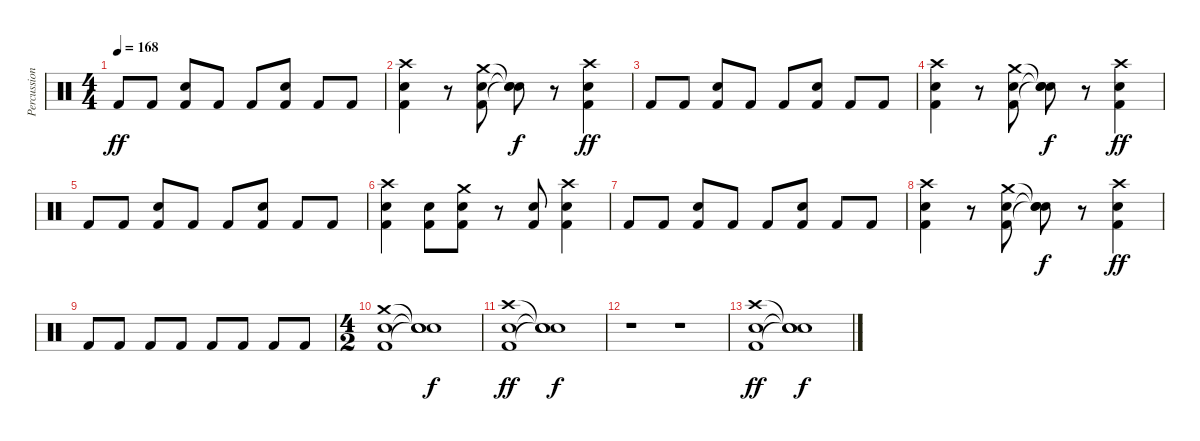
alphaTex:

\track ("Percussions" "Percussion") {instrument percussion}
\staff {score}
\articulation defaults
\ts (4 4)
\tempo 168
\clef neutral
\ks c "Kick (hit) 2".8{dy ff} "Kick (hit) 2".8
("Kick (hit) 2" "Snare (hit) 2").8 "Kick (hit) 2".8 "Kick (hit) 2".8 ("Kick (hit) 2" "Snare (hit) 2").8 "Kick (hit) 2".8 "Kick (hit) 2".8 |
("Kick (hit) 2" "Snare (hit) 2" "Crash high (hit)").4 r.8 ("Kick (hit) 2" "Snare (hit) 2" "Crash medium (hit)").8 ("Snare (hit)"{t} "Snare (hit)"{t} "Snare (hit)"{t}).8{dy f} r.8 ("Kick (hit) 2" "Snare (hit) 2" "Crash high (hit)").4{dy ff} |
"Kick (hit) 2".8 "Kick (hit) 2".8 ("Kick (hit) 2" "Snare (hit) 2").8 "Kick (hit) 2".8 "Kick (hit) 2".8 ("Kick (hit) 2" "Snare (hit) 2").8 "Kick (hit) 2".8 "Kick (hit) 2".8 |
("Kick (hit) 2" "Snare (hit) 2" "Crash high (hit)").4 r.8 ("Kick (hit) 2" "Snare (hit) 2" "Crash medium (hit)").8 ("Snare (hit)"{t} "Snare (hit)"{t} "Snare (hit)"{t}).8{dy f} r.8 ("Kick (hit) 2" "Snare (hit) 2" "Crash high (hit)").4{dy ff} |
"Kick (hit) 2".8 "Kick (hit) 2".8 ("Kick (hit) 2" "Snare (hit) 2").8 "Kick (hit) 2".8 "Kick (hit) 2".8 ("Kick (hit) 2" "Snare (hit) 2").8 "Kick (hit) 2".8 "Kick (hit) 2".8 |
("Kick (hit) 2" "Snare (hit) 2" "Crash high (hit)").4 ("Kick (hit) 2" "Snare (hit) 2").8 ("Kick (hit) 2" "Snare (hit) 2" "Crash medium (hit)").8 r.8 ("Kick (hit) 2" "Snare (hit) 2").8 ("Kick (hit) 2" "Snare (hit) 2" "Crash high (hit)").4 |
"Kick (hit) 2".8 "Kick (hit) 2".8 ("Kick (hit) 2" "Snare (hit) 2").8 "Kick (hit) 2".8 "Kick (hit) 2".8 ("Kick (hit) 2" "Snare (hit) 2").8 "Kick (hit) 2".8 "Kick (hit) 2".8 |
("Kick (hit) 2" "Snare (hit) 2" "Crash high (hit)").4 r.8 ("Kick (hit) 2" "Snare (hit) 2" "Crash medium (hit)").8 ("Snare (hit)"{t} "Snare (hit)"{t} "Snare (hit)"{t}).8{dy f} r.8 ("Kick (hit) 2" "Snare (hit) 2" "Crash high (hit)").4{dy ff} |
"Kick (hit) 2".8 "Kick (hit) 2".8 "Kick (hit) 2".8 "Kick (hit) 2".8 "Kick (hit) 2".8 "Kick (hit) 2".8 "Kick (hit) 2".8 "Kick (hit) 2".8 |
\ts (4 2)
("Kick (hit) 2" "Snare (hit) 2" "Crash medium (hit)").1 ("Snare (hit)"{t} "Snare (hit)"{t} "Snare (hit)"{t}).1{dy f} |
("Kick (hit) 2" "Snare (hit) 2" "Crash high (hit)").1{dy ff} ("Snare (hit)"{t} "Snare (hit)"{t} "Snare (hit)"{t}).1{dy f} |
r.1 r.1 |
("Kick (hit) 2" "Snare (hit) 2" "Crash high (hit)").1{dy ff} ("Snare (hit)"{t} "Snare (hit)"{t} "Snare (hit)"{t}).1{dy f}
